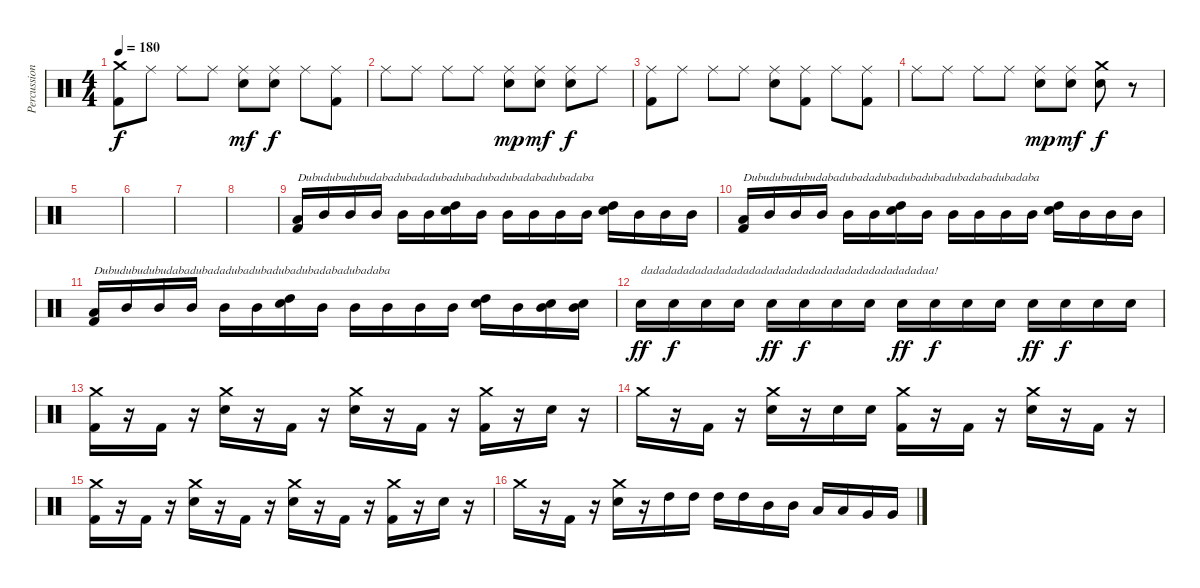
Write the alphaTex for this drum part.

\track ("Percussion" "Percussion") {instrument percussion}
\staff {score}
\articulation defaults
\ts (4 4)
\tempo 180
\clef neutral
\ks c
("Crash medium (hit)" "Kick (hit) 2").8{dy f} "Ride (middle)".8 "Ride (middle)".8 "Ride (middle)".8 ("Ride (middle)" "Snare (hit) 2").8{dy mf} ("Ride (middle)" "Snare (hit) 2").8{dy f} "Ride (middle)".8 ("Ride (middle)" "Kick (hit) 2").8 |
"Ride (middle)".8 "Ride (middle)".8 "Ride (middle)".8 "Ride (middle)".8 ("Ride (middle)" "Snare (hit) 2").8{dy mp} ("Ride (middle)" "Snare (hit) 2").8{dy mf} ("Ride (middle)" "Snare (hit) 2").8{dy f} "Ride (middle)".8 |
("Ride (middle)" "Kick (hit) 2").8 "Ride (middle)".8 "Ride (middle)".8 "Ride (middle)".8 ("Ride (middle)" "Snare (hit) 2").8 ("Ride (middle)" "Kick (hit) 2").8 "Ride (middle)".8 ("Ride (middle)" "Kick (hit) 2").8 |
"Ride (middle)".8 "Ride (middle)".8 "Ride (middle)".8 "Ride (middle)".8 ("Ride (middle)" "Snare (hit) 2").8{dy mp} ("Ride (middle)" "Snare (hit) 2").8{dy mf} ("Crash medium (hit)" "Snare (hit) 2").8{dy f} r.8 |
|
|
|
|
("Low Tom (hit)" "Kick (hit) 2").16{txt "Dubudubudubudabadubadadubadubadubadubadabadubadaba"} "Mid Tom (hit)".16 "Mid Tom (hit)".16 "Mid Tom (hit)".16 "Mid Tom (hit)".16 "Mid Tom (hit)".16 ("Snare (hit) 2" "High Tom (hit)").16 "Mid Tom (hit)".16 "Mid Tom (hit)".16 "Mid Tom (hit)".16 "Mid Tom (hit)".16 "Mid Tom (hit)".16 ("Snare (hit) 2" "High Tom (hit)").16 "Mid Tom (hit)".16 "Mid Tom (hit)".16 "Mid Tom (hit)".16 |
("Low Tom (hit)" "Kick (hit) 2").16{txt "Dubudubudubudabadubadadubadubadubadubadabadubadaba"} "Mid Tom (hit)".16 "Mid Tom (hit)".16 "Mid Tom (hit)".16 "Mid Tom (hit)".16 "Mid Tom (hit)".16 ("Snare (hit) 2" "High Tom (hit)").16 "Mid Tom (hit)".16 "Mid Tom (hit)".16 "Mid Tom (hit)".16 "Mid Tom (hit)".16 "Mid Tom (hit)".16 ("Snare (hit) 2" "High Tom (hit)").16 "Mid Tom (hit)".16 "Mid Tom (hit)".16 "Mid Tom (hit)".16 |
("Low Tom (hit)" "Kick (hit) 2").16{txt "Dubudubudubudabadubadadubadubadubadubadabadubadaba"} "Mid Tom (hit)".16 "Mid Tom (hit)".16 "Mid Tom (hit)".16 "Mid Tom (hit)".16 "Mid Tom (hit)".16 ("Snare (hit) 2" "High Tom (hit)").16 "Mid Tom (hit)".16 "Mid Tom (hit)".16 "Mid Tom (hit)".16 "Mid Tom (hit)".16 "Mid Tom (hit)".16 ("Snare (hit) 2" "High Tom (hit)").16 "Mid Tom (hit)".16 ("Snare (hit) 2" "Mid Tom (hit)").16 ("Snare (hit) 2" "Mid Tom (hit)").16 |
"Snare (hit) 2".16{txt "dadadadadadadadadadadadadadadadadadadadadadadadaa!" dy ff} "Snare (hit) 2".16{dy f} "Snare (hit) 2".16 "Snare (hit) 2".16 "Snare (hit) 2".16{dy ff} "Snare (hit) 2".16{dy f} "Snare (hit) 2".16 "Snare (hit) 2".16 "Snare (hit) 2".16{dy ff} "Snare (hit) 2".16{dy f} "Snare (hit) 2".16 "Snare (hit) 2".16 "Snare (hit) 2".16{dy ff} "Snare (hit) 2".16{dy f} "Snare (hit) 2".16 "Snare (hit) 2".16 |
("Crash medium (hit)" "Kick (hit) 2").16 r.16 "Kick (hit) 2".16 r.16 ("Crash medium (hit)" "Snare (hit) 2").16 r.16 "Kick (hit) 2".16 r.16 ("Crash medium (hit)" "Snare (hit) 2").16 r.16 "Kick (hit) 2".16 r.16 ("Crash medium (hit)" "Kick (hit) 2").16 r.16 "Snare (hit) 2".16 r.16 |
"Crash medium (hit)".16 r.16 "Kick (hit) 2".16 r.16 ("Crash medium (hit)" "Snare (hit) 2").16 r.16 "Snare (hit) 2".16 "Snare (hit) 2".16 ("Crash medium (hit)" "Kick (hit) 2").16 r.16 "Kick (hit) 2".16 r.16 ("Crash medium (hit)" "Snare (hit) 2").16 r.16 "Kick (hit) 2".16 r.16 |
("Crash medium (hit)" "Kick (hit) 2").16 r.16 "Kick (hit) 2".16 r.16 ("Crash medium (hit)" "Snare (hit) 2").16 r.16 "Kick (hit) 2".16 r.16 ("Crash medium (hit)" "Snare (hit) 2").16 r.16 "Kick (hit) 2".16 r.16 ("Crash medium (hit)" "Kick (hit) 2").16 r.16 "Snare (hit) 2".16 r.16 |
"Crash medium (hit)".16 r.16 "Kick (hit) 2".16 r.16 ("Crash medium (hit)" "Snare (hit) 2").16 r.16 "High Tom (hit)".16 "High Tom (hit)".16 "High Tom (hit)".16 "High Tom (hit)".16 "Mid Tom (hit)".16 "Mid Tom (hit)".16 "Low Tom (hit)".16 "Low Tom (hit)".16 "Very Low Tom (hit)".16 "Very Low Tom (hit)".16
